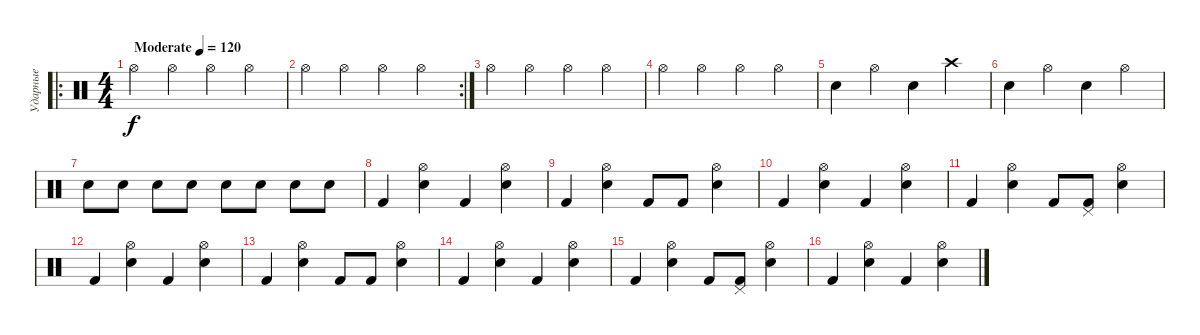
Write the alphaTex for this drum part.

\track ("Ударные" "Ударные") {instrument percussion}
\staff {score}
\articulation defaults
\ro
\ts (4 4)
\tempo (120 "Moderate")
\clef neutral
\ks c "Hi-Hat (open)".4{dy f} "Hi-Hat (open)".4 "Hi-Hat (open)".4 "Hi-Hat (open)".4
|
\rc 2 "Hi-Hat (open)".4 "Hi-Hat (open)".4 "Hi-Hat (open)".4 "Hi-Hat (open)".4
|
"Hi-Hat (open)".4 "Hi-Hat (open)".4 "Hi-Hat (open)".4 "Hi-Hat (open)".4 |
"Hi-Hat (open)".4 "Hi-Hat (open)".4 "Hi-Hat (open)".4 "Hi-Hat (open)".4 |
"Electric Snare (hit)".4 "Hi-Hat (open)".4 "Electric Snare (hit)".4 "Crash high (hit)".4 |
"Electric Snare (hit)".4 "Hi-Hat (open)".4 "Electric Snare (hit)".4 "Hi-Hat (open)".4 |
"Electric Snare (hit)".8 "Electric Snare (hit)".8 "Electric Snare (hit)".8 "Electric Snare (hit)".8 "Electric Snare (hit)".8 "Electric Snare (hit)".8 "Electric Snare (hit)".8 "Electric Snare (hit)".8 |
"Kick (hit) 2".4 ("Hi-Hat (open)" "Electric Snare (hit)").4 "Kick (hit) 2".4 ("Hi-Hat (open)" "Electric Snare (hit)").4 |
"Kick (hit) 2".4 ("Hi-Hat (open)" "Electric Snare (hit)").4 "Kick (hit) 2".8 "Kick (hit) 2".8 ("Hi-Hat (open)" "Electric Snare (hit)").4 |
"Kick (hit) 2".4 ("Hi-Hat (open)" "Electric Snare (hit)").4 "Kick (hit) 2".4 ("Hi-Hat (open)" "Electric Snare (hit)").4 |
"Kick (hit) 2".4 ("Hi-Hat (open)" "Electric Snare (hit)").4 "Kick (hit) 2".8 ("Pedal Hi-Hat (hit)" "Kick (hit) 2").8 ("Hi-Hat (open)" "Electric Snare (hit)").4 |
"Kick (hit) 2".4 ("Hi-Hat (open)" "Electric Snare (hit)").4 "Kick (hit) 2".4 ("Hi-Hat (open)" "Electric Snare (hit)").4 |
"Kick (hit) 2".4 ("Hi-Hat (open)" "Electric Snare (hit)").4 "Kick (hit) 2".8 "Kick (hit) 2".8 ("Hi-Hat (open)" "Electric Snare (hit)").4 |
"Kick (hit) 2".4 ("Hi-Hat (open)" "Electric Snare (hit)").4 "Kick (hit) 2".4 ("Hi-Hat (open)" "Electric Snare (hit)").4 |
"Kick (hit) 2".4 ("Hi-Hat (open)" "Electric Snare (hit)").4 "Kick (hit) 2".8 ("Pedal Hi-Hat (hit)" "Kick (hit) 2").8 ("Hi-Hat (open)" "Electric Snare (hit)").4 |
"Kick (hit) 2".4 ("Hi-Hat (open)" "Electric Snare (hit)").4 "Kick (hit) 2".4 ("Hi-Hat (open)" "Electric Snare (hit)").4
